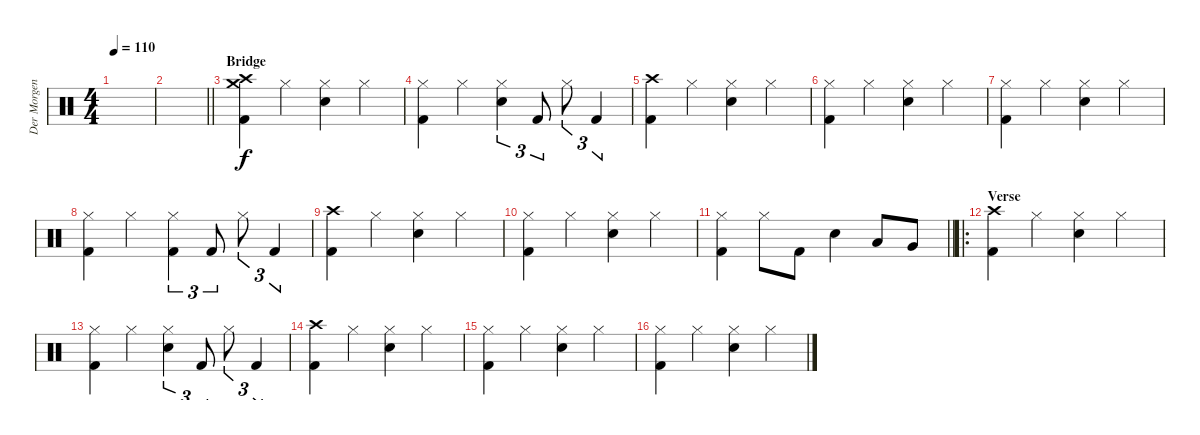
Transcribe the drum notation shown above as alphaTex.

\track ("Der Morgenstern" "Der Morgen") {instrument percussion}
\staff {score}
\articulation defaults
\ts (4 4)
\tempo 110
\clef neutral
\ks c
|
\barLineRight lightlight
|
\section ("" "Bridge")
("Crash high (hit)" "Crash medium (hit)" "Kick (hit) 2").4 "Hi-Hat (closed)".4 ("Hi-Hat (closed)" "Electric Snare (hit)").4 "Hi-Hat (closed)".4 |
("Hi-Hat (closed)" "Kick (hit) 2").4 "Hi-Hat (closed)".4 ("Hi-Hat (closed)" "Electric Snare (hit)").4{tu (3 2)} "Kick (hit) 2".8{tu (3 2)} "Hi-Hat (closed)".8{tu (3 2)} "Kick (hit) 2".4{tu (3 2)} |
("Crash high (hit)" "Kick (hit) 2").4 "Hi-Hat (closed)".4 ("Hi-Hat (closed)" "Electric Snare (hit)").4 "Hi-Hat (closed)".4 |
("Hi-Hat (closed)" "Kick (hit) 2").4 "Hi-Hat (closed)".4 ("Hi-Hat (closed)" "Electric Snare (hit)").4 "Hi-Hat (closed)".4 |
("Hi-Hat (closed)" "Kick (hit) 2").4 "Hi-Hat (closed)".4 ("Hi-Hat (closed)" "Electric Snare (hit)").4 "Hi-Hat (closed)".4 |
("Hi-Hat (closed)" "Kick (hit) 2").4 "Hi-Hat (closed)".4 ("Hi-Hat (closed)" "Kick (hit) 2").4{tu (3 2)} "Kick (hit) 2".8{tu (3 2)} "Hi-Hat (closed)".8{tu (3 2)} "Kick (hit) 2".4{tu (3 2)} |
("Crash high (hit)" "Kick (hit) 2").4 "Hi-Hat (closed)".4 ("Hi-Hat (closed)" "Electric Snare (hit)").4 "Hi-Hat (closed)".4 |
("Hi-Hat (closed)" "Kick (hit) 2").4 "Hi-Hat (closed)".4 ("Hi-Hat (closed)" "Electric Snare (hit)").4 "Hi-Hat (closed)".4 |
\barLineRight lightlight
("Hi-Hat (closed)" "Kick (hit) 2").4 "Hi-Hat (closed)".8 "Kick (hit) 2".8 "Electric Snare (hit)".4 "Low Tom (hit)".8 "Very Low Tom (hit)".8 |
\ro
\section ("" "Verse")
("Crash high (hit)" "Kick (hit) 2").4 "Hi-Hat (closed)".4 ("Hi-Hat (closed)" "Electric Snare (hit)").4 "Hi-Hat (closed)".4 |
("Hi-Hat (closed)" "Kick (hit) 2").4 "Hi-Hat (closed)".4 ("Hi-Hat (closed)" "Electric Snare (hit)").4{tu (3 2)} "Kick (hit) 2".8{tu (3 2)} "Hi-Hat (closed)".8{tu (3 2)} "Kick (hit) 2".4{tu (3 2)} |
("Crash high (hit)" "Kick (hit) 2").4 "Hi-Hat (closed)".4 ("Hi-Hat (closed)" "Electric Snare (hit)").4 "Hi-Hat (closed)".4 |
("Hi-Hat (closed)" "Kick (hit) 2").4 "Hi-Hat (closed)".4 ("Hi-Hat (closed)" "Electric Snare (hit)").4 "Hi-Hat (closed)".4 |
("Hi-Hat (closed)" "Kick (hit) 2").4 "Hi-Hat (closed)".4 ("Hi-Hat (closed)" "Electric Snare (hit)").4 "Hi-Hat (closed)".4
